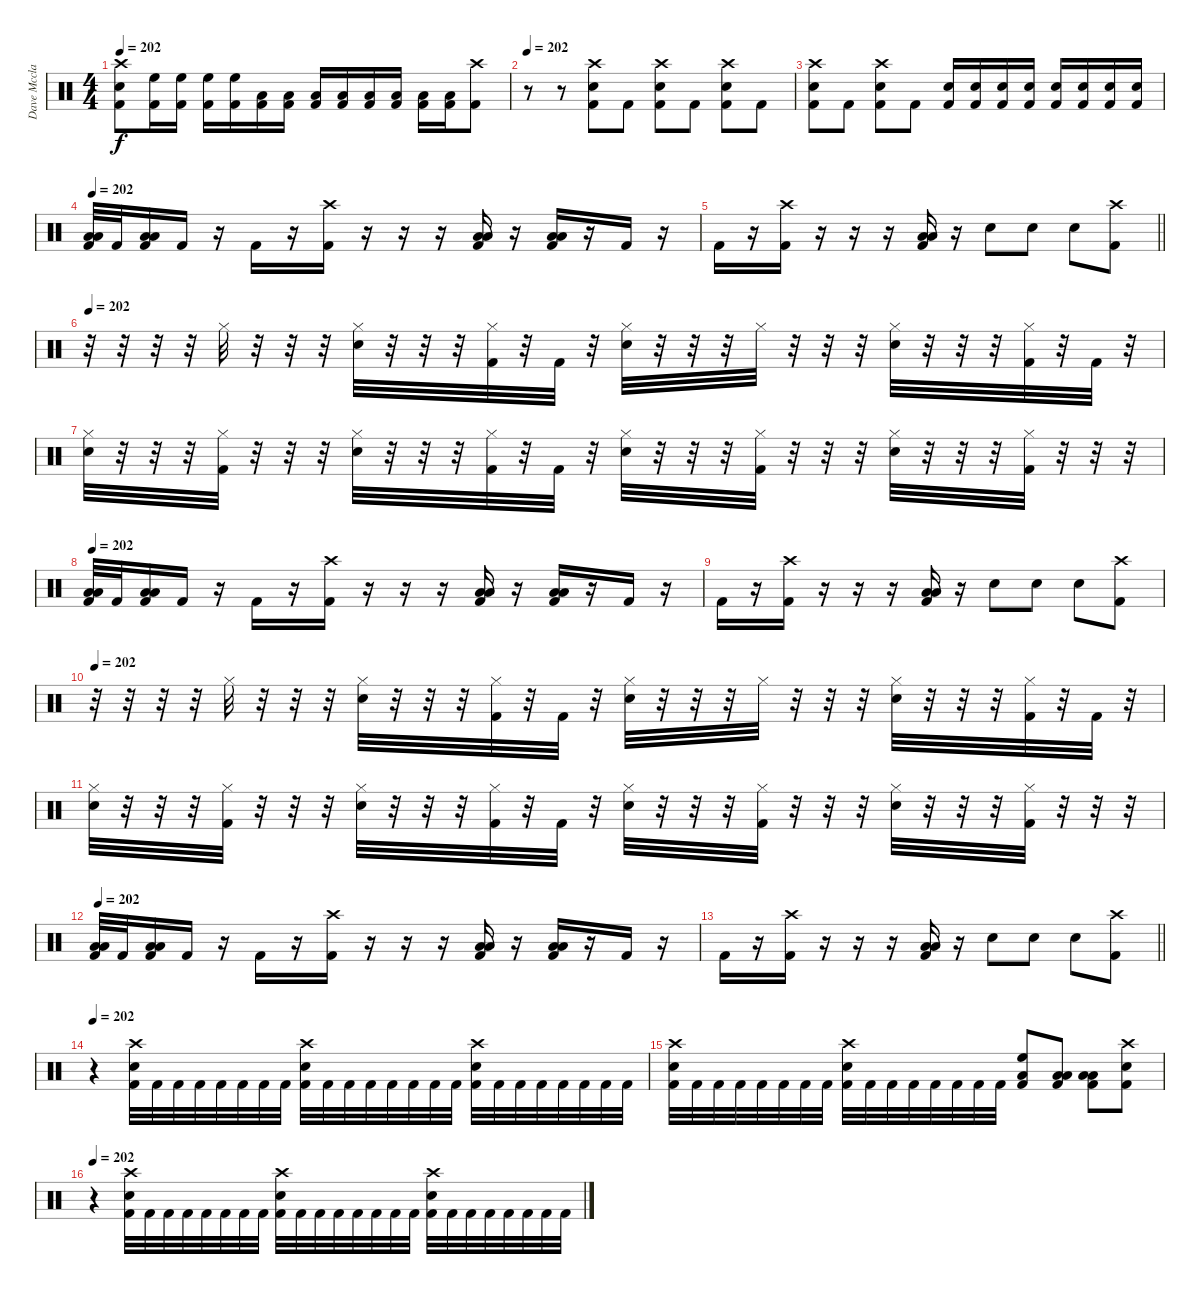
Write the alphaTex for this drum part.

\track ("Dave Mcclain" "Dave Mccla") {instrument percussion}
\staff {score}
\articulation defaults
\ts (4 4)
\tempo 202
\clef neutral
\ks c
("Crash high (hit)" "Electric Snare (hit)" "Kick (hit) 2").8{dy f} ("High Floor Tom (hit)" "Kick (hit) 2").16 ("High Floor Tom (hit)" "Kick (hit) 2").16 ("High Floor Tom (hit)" "Kick (hit) 2").16 ("High Floor Tom (hit)" "Kick (hit) 2").16 ("Low Tom (hit)" "Kick (hit) 2").16 ("Low Tom (hit)" "Kick (hit) 2").16 ("Low Tom (hit)" "Kick (hit) 2").16 ("Low Tom (hit)" "Kick (hit) 2").16 ("Low Floor Tom (hit)" "Kick (hit) 2").16 ("Low Floor Tom (hit)" "Kick (hit) 2").16 ("Low Floor Tom (hit)" "Kick (hit) 2").16 ("Low Floor Tom (hit)" "Kick (hit) 2").16 ("Crash high (hit)" "Kick (hit) 2").8 |
\tempo 202
r.8 r.8 ("Crash high (hit)" "Electric Snare (hit)" "Kick (hit) 2").8 "Kick (hit) 2".8 ("Crash high (hit)" "Electric Snare (hit)" "Kick (hit) 2").8 "Kick (hit) 2".8 ("Crash high (hit)" "Electric Snare (hit)" "Kick (hit) 2").8 "Kick (hit) 2".8 |
("Crash high (hit)" "Electric Snare (hit)" "Kick (hit) 2").8 "Kick (hit) 2".8 ("Crash high (hit)" "Electric Snare (hit)" "Kick (hit) 2").8 "Kick (hit) 2".8 ("Electric Snare (hit)" "Kick (hit) 2").16 ("Electric Snare (hit)" "Kick (hit) 2").16 ("Electric Snare (hit)" "Kick (hit) 2").16 ("Electric Snare (hit)" "Kick (hit) 2").16 ("Electric Snare (hit)" "Kick (hit) 2").16 ("Electric Snare (hit)" "Kick (hit) 2").16 ("Electric Snare (hit)" "Kick (hit) 2").16 ("Electric Snare (hit)" "Kick (hit) 2").16 |
\tempo 202
("Low Tom (hit)" "Low Floor Tom (hit)" "Kick (hit) 2").32 "Kick (hit) 2".32 ("Low Tom (hit)" "Low Floor Tom (hit)" "Kick (hit) 2").16 "Kick (hit) 2".16 r.16 "Kick (hit) 2".16 r.16 ("Crash high (hit)" "Kick (hit) 2").16 r.16 r.16 r.16 ("Low Tom (hit)" "Low Floor Tom (hit)" "Kick (hit) 2").16 r.16 ("Low Tom (hit)" "Low Floor Tom (hit)" "Kick (hit) 2").16 r.16 "Kick (hit) 2".16 r.16 |
\barLineRight lightlight "Kick (hit) 2".16
r.16 ("Crash high (hit)" "Kick (hit) 2").16 r.16 r.16 r.16 ("Low Tom (hit)" "Low Floor Tom (hit)" "Kick (hit) 2").16 r.16 "Electric Snare (hit)".8 "Electric Snare (hit)".8 "Electric Snare (hit)".8 ("Crash high (hit)" "Kick (hit) 2").8 |
\section ("" "")
\tempo 202
r.32 r.32 r.32 r.32 "Hi-Hat (closed)".32 r.32 r.32 r.32 ("Hi-Hat (closed)" "Electric Snare (hit)").32 r.32 r.32 r.32 ("Hi-Hat (closed)" "Kick (hit) 2").32 r.32 "Kick (hit) 2".32 r.32 ("Hi-Hat (closed)" "Electric Snare (hit)").32 r.32 r.32 r.32 "Hi-Hat (closed)".32 r.32 r.32 r.32 ("Hi-Hat (closed)" "Electric Snare (hit)").32 r.32 r.32 r.32 ("Hi-Hat (closed)" "Kick (hit) 2").32 r.32 "Kick (hit) 2".32 r.32 |
("Hi-Hat (closed)" "Electric Snare (hit)").32 r.32 r.32 r.32 ("Hi-Hat (closed)" "Kick (hit) 2").32 r.32 r.32 r.32 ("Hi-Hat (closed)" "Electric Snare (hit)").32 r.32 r.32 r.32 ("Hi-Hat (closed)" "Kick (hit) 2").32 r.32 "Kick (hit) 2".32 r.32 ("Hi-Hat (closed)" "Electric Snare (hit)").32 r.32 r.32 r.32 ("Hi-Hat (closed)" "Kick (hit) 2").32 r.32 r.32 r.32 ("Hi-Hat (closed)" "Electric Snare (hit)").32 r.32 r.32 r.32 ("Hi-Hat (closed)" "Kick (hit) 2").32 r.32 r.32 r.32 |
\tempo 202
("Low Tom (hit)" "Low Floor Tom (hit)" "Kick (hit) 2").32 "Kick (hit) 2".32 ("Low Tom (hit)" "Low Floor Tom (hit)" "Kick (hit) 2").16 "Kick (hit) 2".16 r.16 "Kick (hit) 2".16 r.16 ("Crash high (hit)" "Kick (hit) 2").16 r.16 r.16 r.16 ("Low Tom (hit)" "Low Floor Tom (hit)" "Kick (hit) 2").16 r.16 ("Low Tom (hit)" "Low Floor Tom (hit)" "Kick (hit) 2").16 r.16 "Kick (hit) 2".16 r.16 |
"Kick (hit) 2".16 r.16 ("Crash high (hit)" "Kick (hit) 2").16 r.16 r.16 r.16 ("Low Tom (hit)" "Low Floor Tom (hit)" "Kick (hit) 2").16 r.16 "Electric Snare (hit)".8 "Electric Snare (hit)".8 "Electric Snare (hit)".8 ("Crash high (hit)" "Kick (hit) 2").8 |
\tempo 202
r.32 r.32 r.32 r.32 "Hi-Hat (closed)".32 r.32 r.32 r.32 ("Hi-Hat (closed)" "Electric Snare (hit)").32 r.32 r.32 r.32 ("Hi-Hat (closed)" "Kick (hit) 2").32 r.32 "Kick (hit) 2".32 r.32 ("Hi-Hat (closed)" "Electric Snare (hit)").32 r.32 r.32 r.32 "Hi-Hat (closed)".32 r.32 r.32 r.32 ("Hi-Hat (closed)" "Electric Snare (hit)").32 r.32 r.32 r.32 ("Hi-Hat (closed)" "Kick (hit) 2").32 r.32 "Kick (hit) 2".32 r.32 |
("Hi-Hat (closed)" "Electric Snare (hit)").32 r.32 r.32 r.32 ("Hi-Hat (closed)" "Kick (hit) 2").32 r.32 r.32 r.32 ("Hi-Hat (closed)" "Electric Snare (hit)").32 r.32 r.32 r.32 ("Hi-Hat (closed)" "Kick (hit) 2").32 r.32 "Kick (hit) 2".32 r.32 ("Hi-Hat (closed)" "Electric Snare (hit)").32 r.32 r.32 r.32 ("Hi-Hat (closed)" "Kick (hit) 2").32 r.32 r.32 r.32 ("Hi-Hat (closed)" "Electric Snare (hit)").32 r.32 r.32 r.32 ("Hi-Hat (closed)" "Kick (hit) 2").32 r.32 r.32 r.32 |
\tempo 202
("Low Tom (hit)" "Low Floor Tom (hit)" "Kick (hit) 2").32 "Kick (hit) 2".32 ("Low Tom (hit)" "Low Floor Tom (hit)" "Kick (hit) 2").16 "Kick (hit) 2".16 r.16 "Kick (hit) 2".16 r.16 ("Crash high (hit)" "Kick (hit) 2").16 r.16 r.16 r.16 ("Low Tom (hit)" "Low Floor Tom (hit)" "Kick (hit) 2").16 r.16 ("Low Tom (hit)" "Low Floor Tom (hit)" "Kick (hit) 2").16 r.16 "Kick (hit) 2".16 r.16 |
\barLineRight lightlight "Kick (hit) 2".16
r.16 ("Crash high (hit)" "Kick (hit) 2").16 r.16 r.16 r.16 ("Low Tom (hit)" "Low Floor Tom (hit)" "Kick (hit) 2").16 r.16 "Electric Snare (hit)".8 "Electric Snare (hit)".8 "Electric Snare (hit)".8 ("Crash high (hit)" "Kick (hit) 2").8 |
\section ("" "")
\tempo 202
r.4 ("Crash high (hit)" "Electric Snare (hit)" "Kick (hit) 2").32 "Kick (hit) 2".32 "Kick (hit) 2".32 "Kick (hit) 2".32 "Kick (hit) 2".32 "Kick (hit) 2".32 "Kick (hit) 2".32 "Kick (hit) 2".32 ("Crash high (hit)" "Electric Snare (hit)" "Kick (hit) 2").32 "Kick (hit) 2".32 "Kick (hit) 2".32 "Kick (hit) 2".32 "Kick (hit) 2".32 "Kick (hit) 2".32 "Kick (hit) 2".32 "Kick (hit) 2".32 ("Crash high (hit)" "Electric Snare (hit)" "Kick (hit) 2").32 "Kick (hit) 2".32 "Kick (hit) 2".32 "Kick (hit) 2".32 "Kick (hit) 2".32 "Kick (hit) 2".32 "Kick (hit) 2".32 "Kick (hit) 2".32 |
("Crash high (hit)" "Electric Snare (hit)" "Kick (hit) 2").32 "Kick (hit) 2".32 "Kick (hit) 2".32 "Kick (hit) 2".32 "Kick (hit) 2".32 "Kick (hit) 2".32 "Kick (hit) 2".32 "Kick (hit) 2".32 ("Crash high (hit)" "Electric Snare (hit)" "Kick (hit) 2").32 "Kick (hit) 2".32 "Kick (hit) 2".32 "Kick (hit) 2".32 "Kick (hit) 2".32 "Kick (hit) 2".32 "Kick (hit) 2".32 "Kick (hit) 2".32 ("High Floor Tom (hit)" "Low Tom (hit)" "Kick (hit) 2").8 ("Low Tom (hit)" "Low Floor Tom (hit)" "Kick (hit) 2").8 ("Low Floor Tom (hit)" "Low Floor Tom (hit)" "Kick (hit) 2").8 ("Crash high (hit)" "Electric Snare (hit)" "Kick (hit) 2").8 |
\tempo 202
r.4 ("Crash high (hit)" "Electric Snare (hit)" "Kick (hit) 2").32 "Kick (hit) 2".32 "Kick (hit) 2".32 "Kick (hit) 2".32 "Kick (hit) 2".32 "Kick (hit) 2".32 "Kick (hit) 2".32 "Kick (hit) 2".32 ("Crash high (hit)" "Electric Snare (hit)" "Kick (hit) 2").32 "Kick (hit) 2".32 "Kick (hit) 2".32 "Kick (hit) 2".32 "Kick (hit) 2".32 "Kick (hit) 2".32 "Kick (hit) 2".32 "Kick (hit) 2".32 ("Crash high (hit)" "Electric Snare (hit)" "Kick (hit) 2").32 "Kick (hit) 2".32 "Kick (hit) 2".32 "Kick (hit) 2".32 "Kick (hit) 2".32 "Kick (hit) 2".32 "Kick (hit) 2".32 "Kick (hit) 2".32
